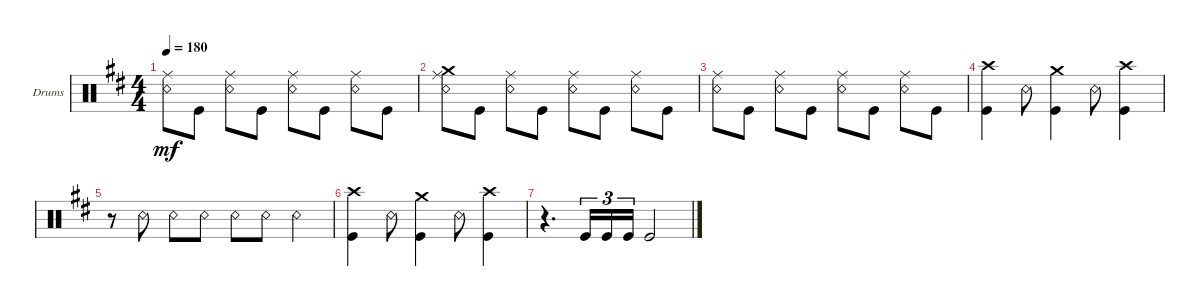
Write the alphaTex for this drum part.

\defaultSystemsLayout 4
\bracketExtendMode groupsimilarinstruments
\firstSystemTrackNameOrientation horizontal
\otherSystemsTrackNameOrientation horizontal
\track ("Drumkit" "Drums") {instrument percussion}
\staff {score}
\articulation defaults
\ts (4 4)
\tempo 180
\clef neutral
\ks bminor
("Snare (rim shot)" "Ride (middle)").8{dy mf} "Kick (hit)".8 ("Snare (rim shot)" "Ride (middle)").8 "Kick (hit)".8 ("Snare (rim shot)" "Ride (middle)").8 "Kick (hit)".8 ("Snare (rim shot)" "Ride (middle)").8 "Kick (hit)".8 |
("Snare (rim shot)" "Ride (middle)" "Crash medium (hit)").8 "Kick (hit)".8 ("Snare (rim shot)" "Ride (middle)").8 "Kick (hit)".8 ("Snare (rim shot)" "Ride (middle)").8 "Kick (hit)".8 ("Snare (rim shot)" "Ride (middle)").8 "Kick (hit)".8 |
("Snare (rim shot)" "Ride (middle)").8 "Kick (hit)".8 ("Snare (rim shot)" "Ride (middle)").8 "Kick (hit)".8 ("Snare (rim shot)" "Ride (middle)").8 "Kick (hit)".8 ("Snare (rim shot)" "Ride (middle)").8 "Kick (hit)".8 |
("Kick (hit)" "Crash high (hit)").4 "Snare (rim shot)".8 ("Kick (hit)" "Crash medium (hit)").4 "Snare (rim shot)".8 ("Kick (hit)" "Crash high (hit)").4 |
r.8 "Snare (rim shot)".8 "Snare (rim shot)".8 "Snare (rim shot)".8 "Snare (rim shot)".8 "Snare (rim shot)".8 "Snare (rim shot)".4 |
("Kick (hit)" "Crash high (hit)").4 "Snare (rim shot)".8 ("Kick (hit)" "Crash medium (hit)").4 "Snare (rim shot)".8 ("Kick (hit)" "Crash high (hit)").4 |
r.4{d} "Kick (hit)".16{tu (3 2)} "Kick (hit)".16{tu (3 2)} "Kick (hit)".16{tu (3 2)} "Kick (hit)".2
